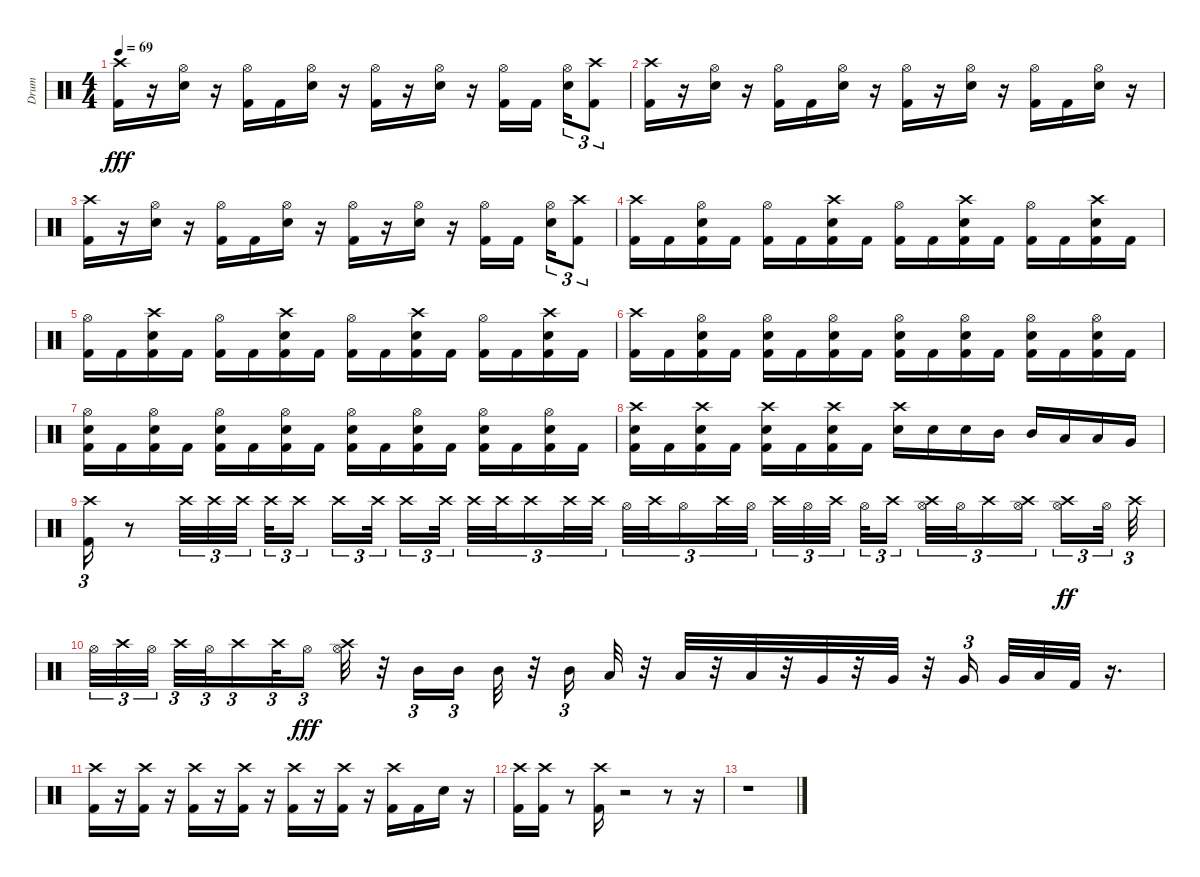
\track ("Drum" "Drum") {instrument percussion}
\staff {score}
\articulation defaults
\ts (4 4)
\tempo 69
\clef neutral
\ks c
("Crash high (hit)" "Kick (hit) 2").16{dy fff} r.16 ("Electric Snare (hit)" "Hi-Hat (open)").16 r.16 ("Kick (hit) 2" "Hi-Hat (open)").16 "Kick (hit) 2".16 ("Electric Snare (hit)" "Hi-Hat (open)").16 r.16 ("Hi-Hat (open)" "Kick (hit) 2").16 r.16 ("Electric Snare (hit)" "Hi-Hat (open)").16 r.16 ("Kick (hit) 2" "Hi-Hat (open)").16 "Kick (hit) 2".16{beam splitsecondary} ("Electric Snare (hit)" "Hi-Hat (open)").16{tu (3 2)} ("Crash high (hit)" "Kick (hit) 2").8{tu (3 2)} |
("Crash high (hit)" "Kick (hit) 2").16 r.16 ("Electric Snare (hit)" "Hi-Hat (open)").16 r.16 ("Kick (hit) 2" "Hi-Hat (open)").16 "Kick (hit) 2".16 ("Hi-Hat (open)" "Electric Snare (hit)").16 r.16 ("Kick (hit) 2" "Hi-Hat (open)").16 r.16 ("Electric Snare (hit)" "Hi-Hat (open)").16 r.16 ("Kick (hit) 2" "Hi-Hat (open)").16 "Kick (hit) 2".16 ("Electric Snare (hit)" "Hi-Hat (open)").16 r.16 |
("Kick (hit) 2" "Crash high (hit)").16 r.16 ("Electric Snare (hit)" "Hi-Hat (open)").16 r.16 ("Kick (hit) 2" "Hi-Hat (open)").16 "Kick (hit) 2".16 ("Electric Snare (hit)" "Hi-Hat (open)").16 r.16 ("Kick (hit) 2" "Hi-Hat (open)").16 r.16 ("Electric Snare (hit)" "Hi-Hat (open)").16 r.16 ("Kick (hit) 2" "Hi-Hat (open)").16 "Kick (hit) 2".16{beam splitsecondary} ("Electric Snare (hit)" "Hi-Hat (open)").16{tu (3 2)} ("Kick (hit) 2" "Crash high (hit)").8{tu (3 2)} |
("Crash high (hit)" "Kick (hit) 2").16 "Kick (hit) 2".16 ("Electric Snare (hit)" "Kick (hit) 2" "Hi-Hat (open)").16 "Kick (hit) 2".16 ("Kick (hit) 2" "Hi-Hat (open)").16 "Kick (hit) 2".16 ("Electric Snare (hit)" "Kick (hit) 2" "Crash high (hit)").16 "Kick (hit) 2".16 ("Hi-Hat (open)" "Kick (hit) 2").16 "Kick (hit) 2".16 ("Electric Snare (hit)" "Kick (hit) 2" "Crash high (hit)").16 "Kick (hit) 2".16 ("Hi-Hat (open)" "Kick (hit) 2").16 "Kick (hit) 2".16 ("Electric Snare (hit)" "Kick (hit) 2" "Crash high (hit)").16 "Kick (hit) 2".16 |
("Kick (hit) 2" "Hi-Hat (open)").16 "Kick (hit) 2".16 ("Electric Snare (hit)" "Kick (hit) 2" "Crash high (hit)").16 "Kick (hit) 2".16 ("Kick (hit) 2" "Hi-Hat (open)").16 "Kick (hit) 2".16 ("Electric Snare (hit)" "Kick (hit) 2" "Crash high (hit)").16 "Kick (hit) 2".16 ("Hi-Hat (open)" "Kick (hit) 2").16 "Kick (hit) 2".16 ("Crash high (hit)" "Electric Snare (hit)" "Kick (hit) 2").16 "Kick (hit) 2".16 ("Hi-Hat (open)" "Kick (hit) 2").16 "Kick (hit) 2".16 ("Electric Snare (hit)" "Kick (hit) 2" "Crash high (hit)").16 "Kick (hit) 2".16 |
("Crash high (hit)" "Kick (hit) 2").16 "Kick (hit) 2".16 ("Electric Snare (hit)" "Kick (hit) 2" "Hi-Hat (open)").16 "Kick (hit) 2".16 ("Electric Snare (hit)" "Kick (hit) 2" "Hi-Hat (open)").16 "Kick (hit) 2".16 ("Kick (hit) 2" "Electric Snare (hit)" "Hi-Hat (open)").16 "Kick (hit) 2".16 ("Kick (hit) 2" "Electric Snare (hit)" "Hi-Hat (open)").16 "Kick (hit) 2".16 ("Kick (hit) 2" "Electric Snare (hit)" "Hi-Hat (open)").16 "Kick (hit) 2".16 ("Kick (hit) 2" "Electric Snare (hit)" "Hi-Hat (open)").16 "Kick (hit) 2".16 ("Kick (hit) 2" "Electric Snare (hit)" "Hi-Hat (open)").16 "Kick (hit) 2".16 |
("Kick (hit) 2" "Electric Snare (hit)" "Hi-Hat (open)").16 "Kick (hit) 2".16 ("Kick (hit) 2" "Electric Snare (hit)" "Hi-Hat (open)").16 "Kick (hit) 2".16 ("Kick (hit) 2" "Electric Snare (hit)" "Hi-Hat (open)").16 "Kick (hit) 2".16 ("Kick (hit) 2" "Electric Snare (hit)" "Hi-Hat (open)").16 "Kick (hit) 2".16 ("Kick (hit) 2" "Electric Snare (hit)" "Hi-Hat (open)").16 "Kick (hit) 2".16 ("Kick (hit) 2" "Electric Snare (hit)" "Hi-Hat (open)").16 "Kick (hit) 2".16 ("Kick (hit) 2" "Electric Snare (hit)" "Hi-Hat (open)").16 "Kick (hit) 2".16 ("Electric Snare (hit)" "Kick (hit) 2" "Hi-Hat (open)").16 "Kick (hit) 2".16 |
("Electric Snare (hit)" "Kick (hit) 2" "Crash high (hit)").16 "Kick (hit) 2".16 ("Electric Snare (hit)" "Kick (hit) 2" "Crash high (hit)").16 "Kick (hit) 2".16 ("Electric Snare (hit)" "Kick (hit) 2" "Crash high (hit)").16 "Kick (hit) 2".16 ("Electric Snare (hit)" "Kick (hit) 2" "Crash high (hit)").16 "Kick (hit) 2".16 ("Electric Snare (hit)" "Crash high (hit)").16 "Electric Snare (hit)".16 "Electric Snare (hit)".16 "Mid Tom (hit)".16 "Mid Tom (hit)".16 "Low Tom (hit)".16 "Low Tom (hit)".16 "Very Low Tom (hit)".16 |
("Kick (hit) 2" "Crash high (hit)").16{tu (3 2)} r.8 "Crash high (hit)".32{tu (3 2)} "Crash high (hit)".32{tu (3 2)} "Crash high (hit)".32{tu (3 2) beam splitsecondary} "Crash high (hit)".32{tu (3 2)} "Crash high (hit)".16{tu (3 2) beam splitsecondary} "Crash high (hit)".16{tu (3 2)} "Crash high (hit)".32{tu (3 2) beam splitsecondary} "Crash high (hit)".16{tu (3 2)} "Crash high (hit)".32{tu (3 2) beam splitsecondary} "Crash high (hit)".32{tu (3 2)} "Crash high (hit)".32{tu (3 2)} "Crash high (hit)".16{tu (3 2)} "Crash high (hit)".32{tu (3 2)} "Crash high (hit)".32{tu (3 2) beam splitsecondary} "Hi-Hat (open)".32{tu (3 2)} "Crash high (hit)".32{tu (3 2)} "Hi-Hat (open)".16{tu (3 2)} "Crash high (hit)".32{tu (3 2)} "Hi-Hat (open)".32{tu (3 2) beam splitsecondary} "Crash high (hit)".32{tu (3 2)} "Hi-Hat (open)".32{tu (3 2)} "Crash high (hit)".32{tu (3 2) beam splitsecondary} "Hi-Hat (open)".32{tu (3 2)} "Crash high (hit)".16{tu (3 2) beam splitsecondary} ("Hi-Hat (open)" "Crash high (hit)").32{tu (3 2)} "Hi-Hat (open)".32{tu (3 2)} "Crash high (hit)".16{tu (3 2)} ("Hi-Hat (open)" "Crash high (hit)").16{tu (3 2) beam splitsecondary} ("Hi-Hat (open)" "Crash high (hit)").16{tu (3 2) dy ff} "Hi-Hat (open)".32{tu (3 2)} "Crash high (hit)".32{tu (3 2)} |
"Hi-Hat (open)".32{tu (3 2)} "Crash high (hit)".32{tu (3 2)} "Hi-Hat (open)".32{tu (3 2) beam splitsecondary} "Crash high (hit)".32{tu (3 2)} "Hi-Hat (open)".32{tu (3 2)} "Crash high (hit)".16{tu (3 2)} "Crash high (hit)".32{tu (3 2)} "Hi-Hat (open)".16{tu (3 2) dy fff beam splitsecondary} ("Crash high (hit)" "Hi-Hat (open)").32 r.32 "Mid Tom (hit)".16{tu (3 2)} "Mid Tom (hit)".16{tu (3 2) beam splitsecondary} "Mid Tom (hit)".32 r.32 "Mid Tom (hit)".16{tu (3 2)} "Low Tom (hit)".32 r.32 "Low Tom (hit)".32 r.32 "Low Tom (hit)".32 r.32 "Very Low Tom (hit)".32 r.32 "Very Low Tom (hit)".32 r.32 "Very Low Tom (hit)".16{tu (3 2) beam splitsecondary} "Very Low Tom (hit)".32 "Low Floor Tom (hit)".32 "Kick (hit) 2".32 r.16{d} |
("Kick (hit) 2" "Crash high (hit)").16 r.16 ("Crash high (hit)" "Kick (hit) 2").16 r.16 ("Kick (hit) 2" "Crash high (hit)").16 r.16 ("Kick (hit) 2" "Crash high (hit)").16 r.16 ("Crash high (hit)" "Kick (hit) 2").16 r.16 ("Crash high (hit)" "Kick (hit) 2").16 r.16 ("Kick (hit) 2" "Crash high (hit)").16 "Kick (hit) 2".16 "Electric Snare (hit)".16 r.16 |
("Kick (hit) 2" "Crash high (hit)").16 ("Kick (hit) 2" "Crash high (hit)").16 r.8 ("Kick (hit) 2" "Crash high (hit)").16 r.2 r.8 r.16 |
r.1
